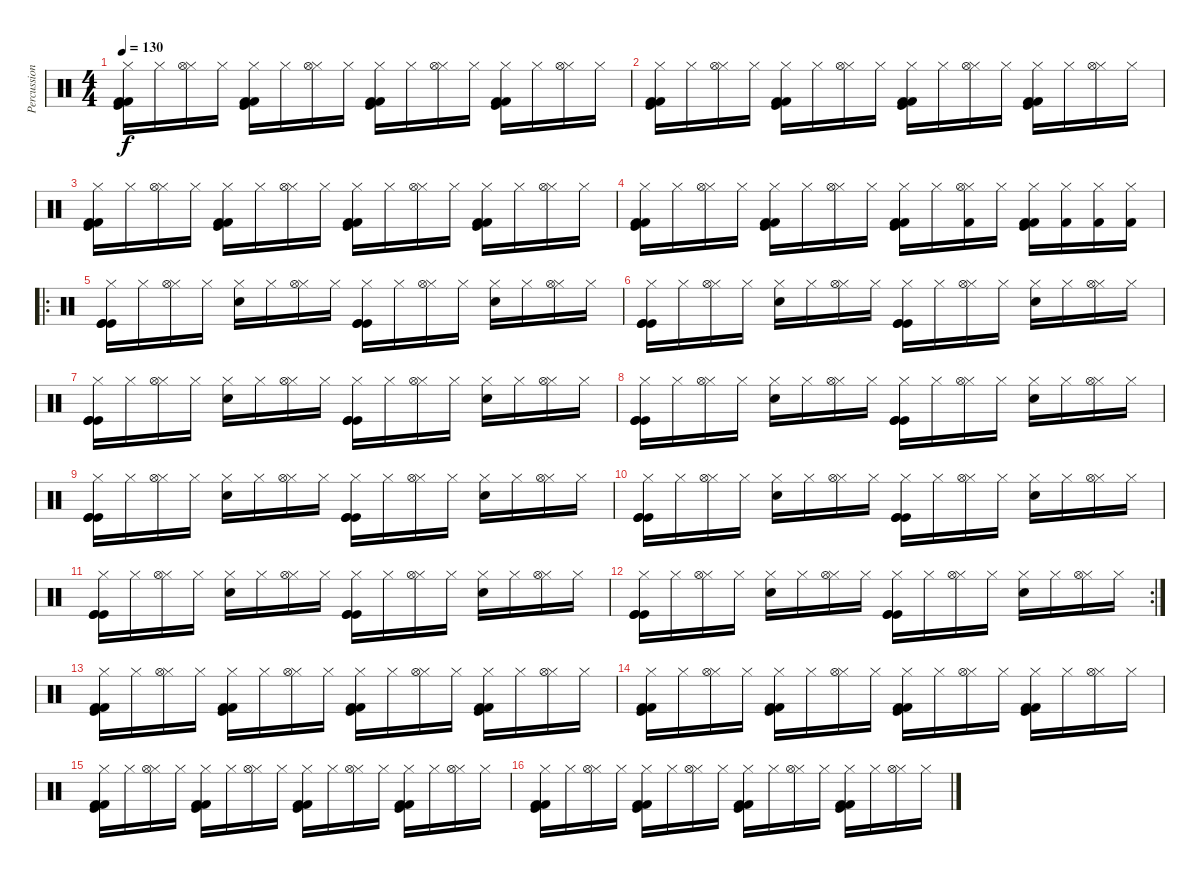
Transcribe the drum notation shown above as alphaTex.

\track ("Percussion" "Percussion") {instrument percussion}
\staff {score}
\articulation defaults
\ts (4 4)
\tempo 130
\clef neutral
\ks c
("Hi-Hat (closed)" "Kick (hit)" "Kick (hit) 2" "Kick (hit) 2").16{dy f} "Hi-Hat (closed)".16 ("Hi-Hat (closed)" "Hi-Hat (open)").16 "Hi-Hat (closed)".16 ("Hi-Hat (closed)" "Kick (hit) 2" "Kick (hit) 2" "Kick (hit)").16 "Hi-Hat (closed)".16 ("Hi-Hat (closed)" "Hi-Hat (open)").16 "Hi-Hat (closed)".16 ("Hi-Hat (closed)" "Kick (hit)" "Kick (hit) 2" "Kick (hit) 2").16 "Hi-Hat (closed)".16 ("Hi-Hat (closed)" "Hi-Hat (open)").16 "Hi-Hat (closed)".16 ("Hi-Hat (closed)" "Kick (hit) 2" "Kick (hit) 2" "Kick (hit)").16 "Hi-Hat (closed)".16 ("Hi-Hat (closed)" "Hi-Hat (open)").16 "Hi-Hat (closed)".16 |
("Hi-Hat (closed)" "Kick (hit)" "Kick (hit) 2" "Kick (hit) 2").16 "Hi-Hat (closed)".16 ("Hi-Hat (closed)" "Hi-Hat (open)").16 "Hi-Hat (closed)".16 ("Hi-Hat (closed)" "Kick (hit) 2" "Kick (hit) 2" "Kick (hit)").16 "Hi-Hat (closed)".16 ("Hi-Hat (closed)" "Hi-Hat (open)").16 "Hi-Hat (closed)".16 ("Hi-Hat (closed)" "Kick (hit)" "Kick (hit) 2" "Kick (hit) 2").16 "Hi-Hat (closed)".16 ("Hi-Hat (closed)" "Hi-Hat (open)").16 "Hi-Hat (closed)".16 ("Hi-Hat (closed)" "Kick (hit) 2" "Kick (hit) 2" "Kick (hit)").16 "Hi-Hat (closed)".16 ("Hi-Hat (closed)" "Hi-Hat (open)").16 "Hi-Hat (closed)".16 |
("Hi-Hat (closed)" "Kick (hit)" "Kick (hit) 2" "Kick (hit) 2").16 "Hi-Hat (closed)".16 ("Hi-Hat (closed)" "Hi-Hat (open)").16 "Hi-Hat (closed)".16 ("Hi-Hat (closed)" "Kick (hit) 2" "Kick (hit) 2" "Kick (hit)").16 "Hi-Hat (closed)".16 ("Hi-Hat (closed)" "Hi-Hat (open)").16 "Hi-Hat (closed)".16 ("Hi-Hat (closed)" "Kick (hit)" "Kick (hit) 2" "Kick (hit) 2").16 "Hi-Hat (closed)".16 ("Hi-Hat (closed)" "Hi-Hat (open)").16 "Hi-Hat (closed)".16 ("Hi-Hat (closed)" "Kick (hit) 2" "Kick (hit) 2" "Kick (hit)").16 "Hi-Hat (closed)".16 ("Hi-Hat (closed)" "Hi-Hat (open)").16 "Hi-Hat (closed)".16 |
("Hi-Hat (closed)" "Kick (hit)" "Kick (hit) 2" "Kick (hit) 2").16 "Hi-Hat (closed)".16 ("Hi-Hat (closed)" "Hi-Hat (open)").16 "Hi-Hat (closed)".16 ("Hi-Hat (closed)" "Kick (hit) 2" "Kick (hit) 2" "Kick (hit)").16 "Hi-Hat (closed)".16 ("Hi-Hat (closed)" "Hi-Hat (open)").16 "Hi-Hat (closed)".16 ("Hi-Hat (closed)" "Kick (hit)" "Kick (hit) 2" "Kick (hit) 2").16 "Hi-Hat (closed)".16 ("Hi-Hat (closed)" "Kick (hit) 2" "Hi-Hat (open)").16 "Hi-Hat (closed)".16 ("Hi-Hat (closed)" "Kick (hit) 2" "Kick (hit) 2" "Kick (hit)").16 ("Hi-Hat (closed)" "Kick (hit) 2").16 ("Hi-Hat (closed)" "Kick (hit) 2").16 ("Hi-Hat (closed)" "Kick (hit) 2").16 |
\ro
("Hi-Hat (closed)" "Kick (hit)" "Kick (hit)" "Kick (hit)").16 "Hi-Hat (closed)".16 ("Hi-Hat (closed)" "Hi-Hat (open)").16 "Hi-Hat (closed)".16 ("Hi-Hat (closed)" "Electric Snare (hit)").16 "Hi-Hat (closed)".16 ("Hi-Hat (closed)" "Hi-Hat (open)").16 "Hi-Hat (closed)".16 ("Hi-Hat (closed)" "Kick (hit)" "Kick (hit)" "Kick (hit)").16 "Hi-Hat (closed)".16 ("Hi-Hat (closed)" "Hi-Hat (open)").16 "Hi-Hat (closed)".16 ("Hi-Hat (closed)" "Electric Snare (hit)").16 "Hi-Hat (closed)".16 ("Hi-Hat (closed)" "Hi-Hat (open)").16 "Hi-Hat (closed)".16 |
("Hi-Hat (closed)" "Kick (hit)" "Kick (hit)" "Kick (hit)").16 "Hi-Hat (closed)".16 ("Hi-Hat (closed)" "Hi-Hat (open)").16 "Hi-Hat (closed)".16 ("Hi-Hat (closed)" "Electric Snare (hit)").16 "Hi-Hat (closed)".16 ("Hi-Hat (closed)" "Hi-Hat (open)").16 "Hi-Hat (closed)".16 ("Hi-Hat (closed)" "Kick (hit)" "Kick (hit)" "Kick (hit)").16 "Hi-Hat (closed)".16 ("Hi-Hat (closed)" "Hi-Hat (open)").16 "Hi-Hat (closed)".16 ("Hi-Hat (closed)" "Electric Snare (hit)").16 "Hi-Hat (closed)".16 ("Hi-Hat (closed)" "Hi-Hat (open)").16 "Hi-Hat (closed)".16 |
("Hi-Hat (closed)" "Kick (hit)" "Kick (hit)" "Kick (hit)").16 "Hi-Hat (closed)".16 ("Hi-Hat (closed)" "Hi-Hat (open)").16 "Hi-Hat (closed)".16 ("Hi-Hat (closed)" "Electric Snare (hit)").16 "Hi-Hat (closed)".16 ("Hi-Hat (closed)" "Hi-Hat (open)").16 "Hi-Hat (closed)".16 ("Hi-Hat (closed)" "Kick (hit)" "Kick (hit)" "Kick (hit)").16 "Hi-Hat (closed)".16 ("Hi-Hat (closed)" "Hi-Hat (open)").16 "Hi-Hat (closed)".16 ("Hi-Hat (closed)" "Electric Snare (hit)").16 "Hi-Hat (closed)".16 ("Hi-Hat (closed)" "Hi-Hat (open)").16 "Hi-Hat (closed)".16 |
("Hi-Hat (closed)" "Kick (hit)" "Kick (hit)" "Kick (hit)").16 "Hi-Hat (closed)".16 ("Hi-Hat (closed)" "Hi-Hat (open)").16 "Hi-Hat (closed)".16 ("Hi-Hat (closed)" "Electric Snare (hit)").16 "Hi-Hat (closed)".16 ("Hi-Hat (closed)" "Hi-Hat (open)").16 "Hi-Hat (closed)".16 ("Hi-Hat (closed)" "Kick (hit)" "Kick (hit)" "Kick (hit)").16 "Hi-Hat (closed)".16 ("Hi-Hat (closed)" "Hi-Hat (open)").16 "Hi-Hat (closed)".16 ("Hi-Hat (closed)" "Electric Snare (hit)").16 "Hi-Hat (closed)".16 ("Hi-Hat (closed)" "Hi-Hat (open)").16 "Hi-Hat (closed)".16 |
("Hi-Hat (closed)" "Kick (hit)" "Kick (hit)" "Kick (hit)").16 "Hi-Hat (closed)".16 ("Hi-Hat (closed)" "Hi-Hat (open)").16 "Hi-Hat (closed)".16 ("Hi-Hat (closed)" "Electric Snare (hit)").16 "Hi-Hat (closed)".16 ("Hi-Hat (closed)" "Hi-Hat (open)").16 "Hi-Hat (closed)".16 ("Hi-Hat (closed)" "Kick (hit)" "Kick (hit)" "Kick (hit)").16 "Hi-Hat (closed)".16 ("Hi-Hat (closed)" "Hi-Hat (open)").16 "Hi-Hat (closed)".16 ("Hi-Hat (closed)" "Electric Snare (hit)").16 "Hi-Hat (closed)".16 ("Hi-Hat (closed)" "Hi-Hat (open)").16 "Hi-Hat (closed)".16 |
("Hi-Hat (closed)" "Kick (hit)" "Kick (hit)" "Kick (hit)").16 "Hi-Hat (closed)".16 ("Hi-Hat (closed)" "Hi-Hat (open)").16 "Hi-Hat (closed)".16 ("Hi-Hat (closed)" "Electric Snare (hit)").16 "Hi-Hat (closed)".16 ("Hi-Hat (closed)" "Hi-Hat (open)").16 "Hi-Hat (closed)".16 ("Hi-Hat (closed)" "Kick (hit)" "Kick (hit)" "Kick (hit)").16 "Hi-Hat (closed)".16 ("Hi-Hat (closed)" "Hi-Hat (open)").16 "Hi-Hat (closed)".16 ("Hi-Hat (closed)" "Electric Snare (hit)").16 "Hi-Hat (closed)".16 ("Hi-Hat (closed)" "Hi-Hat (open)").16 "Hi-Hat (closed)".16 |
("Hi-Hat (closed)" "Kick (hit)" "Kick (hit)" "Kick (hit)").16 "Hi-Hat (closed)".16 ("Hi-Hat (closed)" "Hi-Hat (open)").16 "Hi-Hat (closed)".16 ("Hi-Hat (closed)" "Electric Snare (hit)").16 "Hi-Hat (closed)".16 ("Hi-Hat (closed)" "Hi-Hat (open)").16 "Hi-Hat (closed)".16 ("Hi-Hat (closed)" "Kick (hit)" "Kick (hit)" "Kick (hit)").16 "Hi-Hat (closed)".16 ("Hi-Hat (closed)" "Hi-Hat (open)").16 "Hi-Hat (closed)".16 ("Hi-Hat (closed)" "Electric Snare (hit)").16 "Hi-Hat (closed)".16 ("Hi-Hat (closed)" "Hi-Hat (open)").16 "Hi-Hat (closed)".16 |
\rc 2
("Hi-Hat (closed)" "Kick (hit)" "Kick (hit)" "Kick (hit)").16 "Hi-Hat (closed)".16 ("Hi-Hat (closed)" "Hi-Hat (open)").16 "Hi-Hat (closed)".16 ("Hi-Hat (closed)" "Electric Snare (hit)").16 "Hi-Hat (closed)".16 ("Hi-Hat (closed)" "Hi-Hat (open)").16 "Hi-Hat (closed)".16 ("Hi-Hat (closed)" "Kick (hit)" "Kick (hit)" "Kick (hit)").16 "Hi-Hat (closed)".16 ("Hi-Hat (closed)" "Hi-Hat (open)").16 "Hi-Hat (closed)".16 ("Hi-Hat (closed)" "Electric Snare (hit)").16 "Hi-Hat (closed)".16 ("Hi-Hat (closed)" "Hi-Hat (open)").16 "Hi-Hat (closed)".16 |
("Hi-Hat (closed)" "Kick (hit)" "Kick (hit) 2" "Kick (hit) 2").16 "Hi-Hat (closed)".16 ("Hi-Hat (closed)" "Hi-Hat (open)").16 "Hi-Hat (closed)".16 ("Hi-Hat (closed)" "Kick (hit) 2" "Kick (hit) 2" "Kick (hit)").16 "Hi-Hat (closed)".16 ("Hi-Hat (closed)" "Hi-Hat (open)").16 "Hi-Hat (closed)".16 ("Hi-Hat (closed)" "Kick (hit)" "Kick (hit) 2" "Kick (hit) 2").16 "Hi-Hat (closed)".16 ("Hi-Hat (closed)" "Hi-Hat (open)").16 "Hi-Hat (closed)".16 ("Hi-Hat (closed)" "Kick (hit) 2" "Kick (hit) 2" "Kick (hit)").16 "Hi-Hat (closed)".16 ("Hi-Hat (closed)" "Hi-Hat (open)").16 "Hi-Hat (closed)".16 |
("Hi-Hat (closed)" "Kick (hit)" "Kick (hit) 2" "Kick (hit) 2").16 "Hi-Hat (closed)".16 ("Hi-Hat (closed)" "Hi-Hat (open)").16 "Hi-Hat (closed)".16 ("Hi-Hat (closed)" "Kick (hit) 2" "Kick (hit) 2" "Kick (hit)").16 "Hi-Hat (closed)".16 ("Hi-Hat (closed)" "Hi-Hat (open)").16 "Hi-Hat (closed)".16 ("Hi-Hat (closed)" "Kick (hit)" "Kick (hit) 2" "Kick (hit) 2").16 "Hi-Hat (closed)".16 ("Hi-Hat (closed)" "Hi-Hat (open)").16 "Hi-Hat (closed)".16 ("Hi-Hat (closed)" "Kick (hit) 2" "Kick (hit) 2" "Kick (hit)").16 "Hi-Hat (closed)".16 ("Hi-Hat (closed)" "Hi-Hat (open)").16 "Hi-Hat (closed)".16 |
("Hi-Hat (closed)" "Kick (hit)" "Kick (hit) 2" "Kick (hit) 2").16 "Hi-Hat (closed)".16 ("Hi-Hat (closed)" "Hi-Hat (open)").16 "Hi-Hat (closed)".16 ("Hi-Hat (closed)" "Kick (hit) 2" "Kick (hit) 2" "Kick (hit)").16 "Hi-Hat (closed)".16 ("Hi-Hat (closed)" "Hi-Hat (open)").16 "Hi-Hat (closed)".16 ("Hi-Hat (closed)" "Kick (hit)" "Kick (hit) 2" "Kick (hit) 2").16 "Hi-Hat (closed)".16 ("Hi-Hat (closed)" "Hi-Hat (open)").16 "Hi-Hat (closed)".16 ("Hi-Hat (closed)" "Kick (hit) 2" "Kick (hit) 2" "Kick (hit)").16 "Hi-Hat (closed)".16 ("Hi-Hat (closed)" "Hi-Hat (open)").16 "Hi-Hat (closed)".16 |
("Hi-Hat (closed)" "Kick (hit)" "Kick (hit) 2" "Kick (hit) 2").16 "Hi-Hat (closed)".16 ("Hi-Hat (closed)" "Hi-Hat (open)").16 "Hi-Hat (closed)".16 ("Hi-Hat (closed)" "Kick (hit) 2" "Kick (hit) 2" "Kick (hit)").16 "Hi-Hat (closed)".16 ("Hi-Hat (closed)" "Hi-Hat (open)").16 "Hi-Hat (closed)".16 ("Hi-Hat (closed)" "Kick (hit)" "Kick (hit) 2" "Kick (hit) 2").16 "Hi-Hat (closed)".16 ("Hi-Hat (closed)" "Hi-Hat (open)").16 "Hi-Hat (closed)".16 ("Hi-Hat (closed)" "Kick (hit) 2" "Kick (hit) 2" "Kick (hit)").16 "Hi-Hat (closed)".16 ("Hi-Hat (closed)" "Hi-Hat (open)").16 "Hi-Hat (closed)".16
